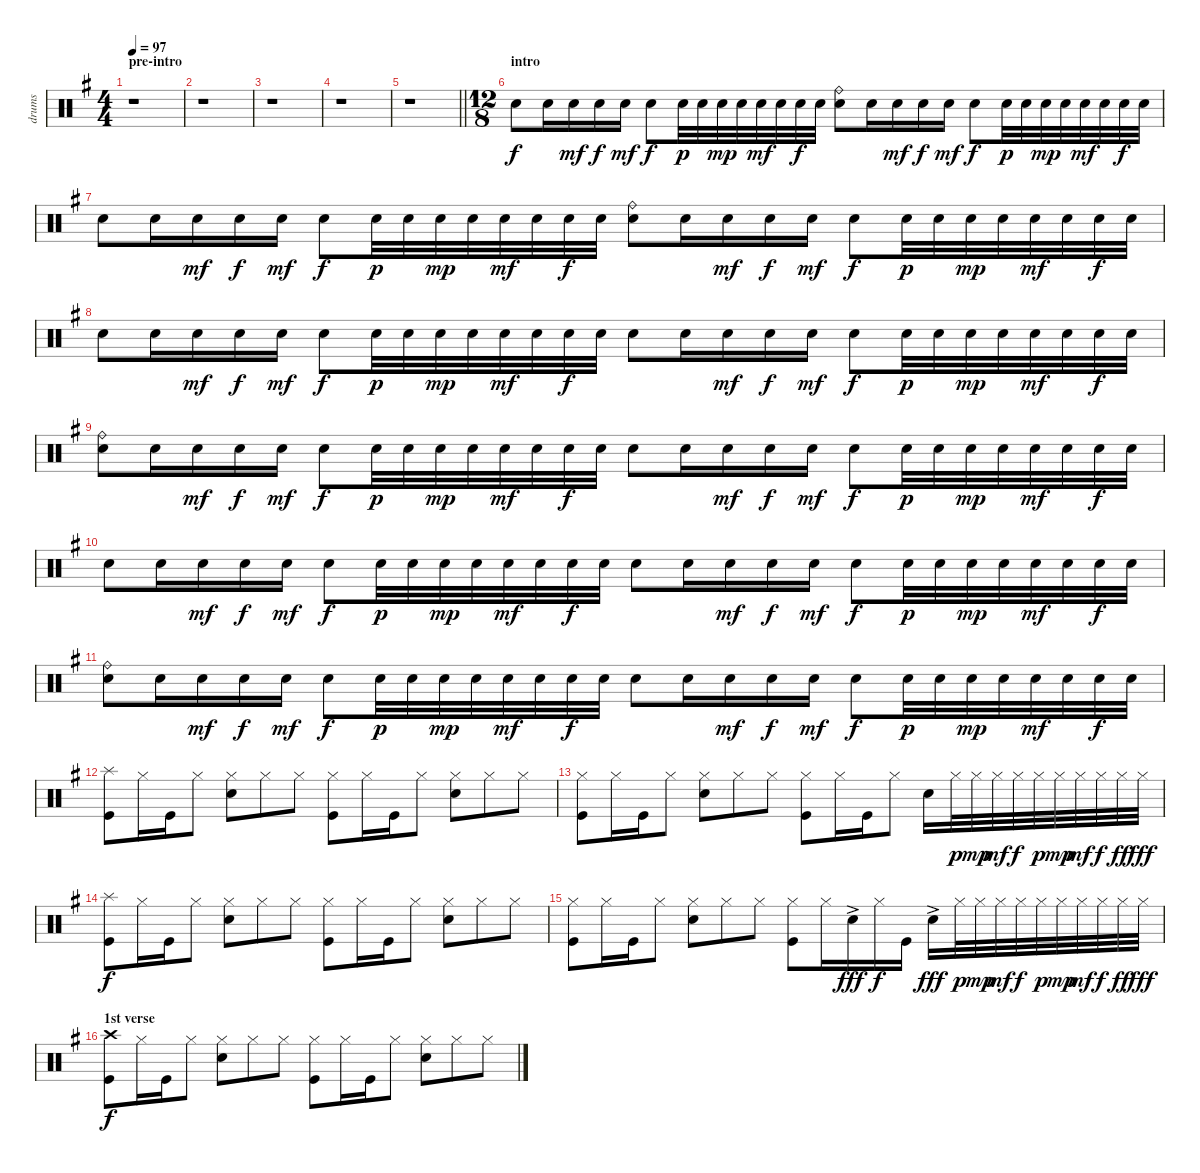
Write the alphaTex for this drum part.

\track ("drums" "drums") {instrument percussion}
\staff {score}
\articulation defaults
\ts (4 4)
\section ("" "pre-intro")
\tempo 97
\clef neutral
\ks g
r.1{dy f} |
r.1 |
r.1 |
r.1 |
\barLineRight lightlight
r.1 |
\ts (12 8)
\section ("" "intro")
"Electric Snare (hit)".8 "Electric Snare (hit)".16 "Electric Snare (hit)".16{dy mf} "Electric Snare (hit)".16{dy f} "Electric Snare (hit)".16{dy mf} "Electric Snare (hit)".8{dy f} "Electric Snare (hit)".32{dy p} "Electric Snare (hit)".32 "Electric Snare (hit)".32{dy mp} "Electric Snare (hit)".32 "Electric Snare (hit)".32{dy mf} "Electric Snare (hit)".32 "Electric Snare (hit)".32{dy f} "Electric Snare (hit)".32 ("Ride (bell)" "Electric Snare (hit)").8 "Electric Snare (hit)".16 "Electric Snare (hit)".16{dy mf} "Electric Snare (hit)".16{dy f} "Electric Snare (hit)".16{dy mf} "Electric Snare (hit)".8{dy f} "Electric Snare (hit)".32{dy p} "Electric Snare (hit)".32 "Electric Snare (hit)".32{dy mp} "Electric Snare (hit)".32 "Electric Snare (hit)".32{dy mf} "Electric Snare (hit)".32 "Electric Snare (hit)".32{dy f} "Electric Snare (hit)".32 |
"Electric Snare (hit)".8 "Electric Snare (hit)".16 "Electric Snare (hit)".16{dy mf} "Electric Snare (hit)".16{dy f} "Electric Snare (hit)".16{dy mf} "Electric Snare (hit)".8{dy f} "Electric Snare (hit)".32{dy p} "Electric Snare (hit)".32 "Electric Snare (hit)".32{dy mp} "Electric Snare (hit)".32 "Electric Snare (hit)".32{dy mf} "Electric Snare (hit)".32 "Electric Snare (hit)".32{dy f} "Electric Snare (hit)".32 ("Ride (bell)" "Electric Snare (hit)").8 "Electric Snare (hit)".16 "Electric Snare (hit)".16{dy mf} "Electric Snare (hit)".16{dy f} "Electric Snare (hit)".16{dy mf} "Electric Snare (hit)".8{dy f} "Electric Snare (hit)".32{dy p} "Electric Snare (hit)".32 "Electric Snare (hit)".32{dy mp} "Electric Snare (hit)".32 "Electric Snare (hit)".32{dy mf} "Electric Snare (hit)".32 "Electric Snare (hit)".32{dy f} "Electric Snare (hit)".32 |
"Electric Snare (hit)".8 "Electric Snare (hit)".16 "Electric Snare (hit)".16{dy mf} "Electric Snare (hit)".16{dy f} "Electric Snare (hit)".16{dy mf} "Electric Snare (hit)".8{dy f} "Electric Snare (hit)".32{dy p} "Electric Snare (hit)".32 "Electric Snare (hit)".32{dy mp} "Electric Snare (hit)".32 "Electric Snare (hit)".32{dy mf} "Electric Snare (hit)".32 "Electric Snare (hit)".32{dy f} "Electric Snare (hit)".32 "Electric Snare (hit)".8 "Electric Snare (hit)".16 "Electric Snare (hit)".16{dy mf} "Electric Snare (hit)".16{dy f} "Electric Snare (hit)".16{dy mf} "Electric Snare (hit)".8{dy f} "Electric Snare (hit)".32{dy p} "Electric Snare (hit)".32 "Electric Snare (hit)".32{dy mp} "Electric Snare (hit)".32 "Electric Snare (hit)".32{dy mf} "Electric Snare (hit)".32 "Electric Snare (hit)".32{dy f} "Electric Snare (hit)".32 |
("Ride (bell)" "Electric Snare (hit)").8 "Electric Snare (hit)".16 "Electric Snare (hit)".16{dy mf} "Electric Snare (hit)".16{dy f} "Electric Snare (hit)".16{dy mf} "Electric Snare (hit)".8{dy f} "Electric Snare (hit)".32{dy p} "Electric Snare (hit)".32 "Electric Snare (hit)".32{dy mp} "Electric Snare (hit)".32 "Electric Snare (hit)".32{dy mf} "Electric Snare (hit)".32 "Electric Snare (hit)".32{dy f} "Electric Snare (hit)".32 "Electric Snare (hit)".8 "Electric Snare (hit)".16 "Electric Snare (hit)".16{dy mf} "Electric Snare (hit)".16{dy f} "Electric Snare (hit)".16{dy mf} "Electric Snare (hit)".8{dy f} "Electric Snare (hit)".32{dy p} "Electric Snare (hit)".32 "Electric Snare (hit)".32{dy mp} "Electric Snare (hit)".32 "Electric Snare (hit)".32{dy mf} "Electric Snare (hit)".32 "Electric Snare (hit)".32{dy f} "Electric Snare (hit)".32 |
"Electric Snare (hit)".8 "Electric Snare (hit)".16 "Electric Snare (hit)".16{dy mf} "Electric Snare (hit)".16{dy f} "Electric Snare (hit)".16{dy mf} "Electric Snare (hit)".8{dy f} "Electric Snare (hit)".32{dy p} "Electric Snare (hit)".32 "Electric Snare (hit)".32{dy mp} "Electric Snare (hit)".32 "Electric Snare (hit)".32{dy mf} "Electric Snare (hit)".32 "Electric Snare (hit)".32{dy f} "Electric Snare (hit)".32 "Electric Snare (hit)".8 "Electric Snare (hit)".16 "Electric Snare (hit)".16{dy mf} "Electric Snare (hit)".16{dy f} "Electric Snare (hit)".16{dy mf} "Electric Snare (hit)".8{dy f} "Electric Snare (hit)".32{dy p} "Electric Snare (hit)".32 "Electric Snare (hit)".32{dy mp} "Electric Snare (hit)".32 "Electric Snare (hit)".32{dy mf} "Electric Snare (hit)".32 "Electric Snare (hit)".32{dy f} "Electric Snare (hit)".32 |
("Ride (bell)" "Electric Snare (hit)").8 "Electric Snare (hit)".16 "Electric Snare (hit)".16{dy mf} "Electric Snare (hit)".16{dy f} "Electric Snare (hit)".16{dy mf} "Electric Snare (hit)".8{dy f} "Electric Snare (hit)".32{dy p} "Electric Snare (hit)".32 "Electric Snare (hit)".32{dy mp} "Electric Snare (hit)".32 "Electric Snare (hit)".32{dy mf} "Electric Snare (hit)".32 "Electric Snare (hit)".32{dy f} "Electric Snare (hit)".32 "Electric Snare (hit)".8 "Electric Snare (hit)".16 "Electric Snare (hit)".16{dy mf} "Electric Snare (hit)".16{dy f} "Electric Snare (hit)".16{dy mf} "Electric Snare (hit)".8{dy f} "Electric Snare (hit)".32{dy p} "Electric Snare (hit)".32 "Electric Snare (hit)".32{dy mp} "Electric Snare (hit)".32 "Electric Snare (hit)".32{dy mf} "Electric Snare (hit)".32 "Electric Snare (hit)".32{dy f} "Electric Snare (hit)".32 |
("Splash (hit)" "Kick (hit)").8 "Hi-Hat (closed)".16 "Kick (hit)".16 "Hi-Hat (closed)".8 ("Hi-Hat (closed)" "Electric Snare (hit)").8 "Hi-Hat (closed)".8 "Hi-Hat (closed)".8 ("Hi-Hat (closed)" "Kick (hit)").8 "Hi-Hat (closed)".16 "Kick (hit)".16 "Hi-Hat (closed)".8 ("Hi-Hat (closed)" "Electric Snare (hit)").8 "Hi-Hat (closed)".8 "Hi-Hat (closed)".8 |
("Hi-Hat (closed)" "Kick (hit)").8 "Hi-Hat (closed)".16 "Kick (hit)".16 "Hi-Hat (closed)".8 ("Hi-Hat (closed)" "Electric Snare (hit)").8 "Hi-Hat (closed)".8 "Hi-Hat (closed)".8 ("Hi-Hat (closed)" "Kick (hit)").8 "Hi-Hat (closed)".16 "Kick (hit)".16 "Hi-Hat (closed)".8 "Electric Snare (hit)".16 "Hi-Hat (closed)".32{dy p} "Hi-Hat (closed)".32{dy mp} "Hi-Hat (closed)".32{dy mf} "Hi-Hat (closed)".32{dy f} "Hi-Hat (closed)".32{dy p} "Hi-Hat (closed)".32{dy mp} "Hi-Hat (closed)".32{dy mf} "Hi-Hat (closed)".32{dy f} "Hi-Hat (closed)".32{dy ff} "Hi-Hat (closed)".32{dy fff} |
("Splash (hit)" "Kick (hit)").8{dy f} "Hi-Hat (closed)".16 "Kick (hit)".16 "Hi-Hat (closed)".8 ("Hi-Hat (closed)" "Electric Snare (hit)").8 "Hi-Hat (closed)".8 "Hi-Hat (closed)".8 ("Hi-Hat (closed)" "Kick (hit)").8 "Hi-Hat (closed)".16 "Kick (hit)".16 "Hi-Hat (closed)".8 ("Hi-Hat (closed)" "Electric Snare (hit)").8 "Hi-Hat (closed)".8 "Hi-Hat (closed)".8 |
("Hi-Hat (closed)" "Kick (hit)").8 "Hi-Hat (closed)".16 "Kick (hit)".16 "Hi-Hat (closed)".8 ("Hi-Hat (closed)" "Electric Snare (hit)").8 "Hi-Hat (closed)".8 "Hi-Hat (closed)".8 ("Hi-Hat (closed)" "Kick (hit)").8 "Hi-Hat (closed)".16 "Electric Snare (hit)"{ac}.16{dy fff} "Hi-Hat (closed)".16{dy f} "Kick (hit)".16 "Electric Snare (hit)"{ac}.16{dy fff} "Hi-Hat (closed)".32{dy p} "Hi-Hat (closed)".32{dy mp} "Hi-Hat (closed)".32{dy mf} "Hi-Hat (closed)".32{dy f} "Hi-Hat (closed)".32{dy p} "Hi-Hat (closed)".32{dy mp} "Hi-Hat (closed)".32{dy mf} "Hi-Hat (closed)".32{dy f} "Hi-Hat (closed)".32{dy ff} "Hi-Hat (closed)".32{dy fff} |
\section ("" "1st verse")
("Crash high (hit)" "Kick (hit)").8{dy f} "Hi-Hat (closed)".16 "Kick (hit)".16 "Hi-Hat (closed)".8 ("Hi-Hat (closed)" "Electric Snare (hit)").8 "Hi-Hat (closed)".8 "Hi-Hat (closed)".8 ("Hi-Hat (closed)" "Kick (hit)").8 "Hi-Hat (closed)".16 "Kick (hit)".16 "Hi-Hat (closed)".8 ("Hi-Hat (closed)" "Electric Snare (hit)").8 "Hi-Hat (closed)".8 "Hi-Hat (closed)".8
